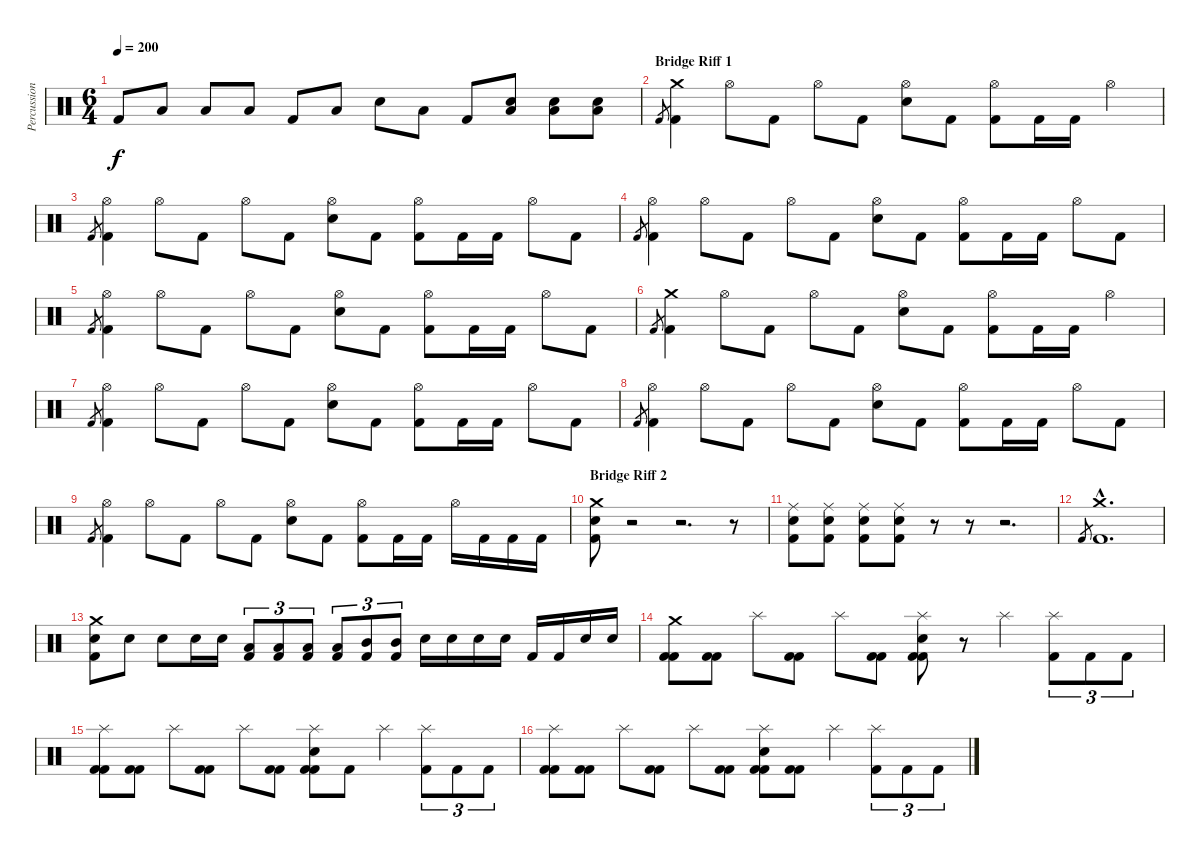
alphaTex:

\track ("Percussion" "Percussion") {instrument percussion}
\staff {score}
\articulation defaults
\ts (6 4)
\tempo 200
\clef neutral
\ks c "Kick (hit) 2".8{dy f} "Low Tom (hit)".8 "Low Floor Tom (hit)".8 "Low Floor Tom (hit)".8 "Kick (hit) 2".8 "Low Tom (hit)".8 "Electric Snare (hit)".8 "Low Floor Tom (hit)".8 "Kick (hit) 2".8
("Electric Snare (hit)" "Low Tom (hit)").8 ("Electric Snare (hit)" "Low Floor Tom (hit)").8 ("Electric Snare (hit)" "Low Floor Tom (hit)").8 |
\section ("" "Bridge Riff 1")
"Kick (hit) 2".8{gr} ("Crash medium (hit)" "Kick (hit) 2").4 "Hi-Hat (open)".8 "Kick (hit) 2".8 "Hi-Hat (open)".8 "Kick (hit) 2".8 ("Hi-Hat (open)" "Electric Snare (hit)").8 "Kick (hit) 2".8 ("Hi-Hat (open)" "Kick (hit) 2").8 "Kick (hit) 2".16 "Kick (hit) 2".16 "Hi-Hat (open)".4 |
"Kick (hit) 2".8{gr} ("Hi-Hat (open)" "Kick (hit) 2").4 "Hi-Hat (open)".8 "Kick (hit) 2".8 "Hi-Hat (open)".8 "Kick (hit) 2".8 ("Hi-Hat (open)" "Electric Snare (hit)").8 "Kick (hit) 2".8 ("Hi-Hat (open)" "Kick (hit) 2").8 "Kick (hit) 2".16 "Kick (hit) 2".16 "Hi-Hat (open)".8 "Kick (hit) 2".8 |
"Kick (hit) 2".8{gr} ("Hi-Hat (open)" "Kick (hit) 2").4 "Hi-Hat (open)".8 "Kick (hit) 2".8 "Hi-Hat (open)".8 "Kick (hit) 2".8 ("Hi-Hat (open)" "Electric Snare (hit)").8 "Kick (hit) 2".8 ("Hi-Hat (open)" "Kick (hit) 2").8 "Kick (hit) 2".16 "Kick (hit) 2".16 "Hi-Hat (open)".8 "Kick (hit) 2".8 |
"Kick (hit) 2".8{gr} ("Hi-Hat (open)" "Kick (hit) 2").4 "Hi-Hat (open)".8 "Kick (hit) 2".8 "Hi-Hat (open)".8 "Kick (hit) 2".8 ("Hi-Hat (open)" "Electric Snare (hit)").8 "Kick (hit) 2".8 ("Hi-Hat (open)" "Kick (hit) 2").8 "Kick (hit) 2".16 "Kick (hit) 2".16 "Hi-Hat (open)".8 "Kick (hit) 2".8 |
"Kick (hit) 2".8{gr} ("Crash medium (hit)" "Kick (hit) 2").4 "Hi-Hat (open)".8 "Kick (hit) 2".8 "Hi-Hat (open)".8 "Kick (hit) 2".8 ("Hi-Hat (open)" "Electric Snare (hit)").8 "Kick (hit) 2".8 ("Hi-Hat (open)" "Kick (hit) 2").8 "Kick (hit) 2".16 "Kick (hit) 2".16 "Hi-Hat (open)".4 |
"Kick (hit) 2".8{gr} ("Hi-Hat (open)" "Kick (hit) 2").4 "Hi-Hat (open)".8 "Kick (hit) 2".8 "Hi-Hat (open)".8 "Kick (hit) 2".8 ("Hi-Hat (open)" "Electric Snare (hit)").8 "Kick (hit) 2".8 ("Hi-Hat (open)" "Kick (hit) 2").8 "Kick (hit) 2".16 "Kick (hit) 2".16 "Hi-Hat (open)".8 "Kick (hit) 2".8 |
"Kick (hit) 2".8{gr} ("Hi-Hat (open)" "Kick (hit) 2").4 "Hi-Hat (open)".8 "Kick (hit) 2".8 "Hi-Hat (open)".8 "Kick (hit) 2".8 ("Hi-Hat (open)" "Electric Snare (hit)").8 "Kick (hit) 2".8 ("Hi-Hat (open)" "Kick (hit) 2").8 "Kick (hit) 2".16 "Kick (hit) 2".16 "Hi-Hat (open)".8 "Kick (hit) 2".8 |
"Kick (hit) 2".8{gr} ("Hi-Hat (open)" "Kick (hit) 2").4 "Hi-Hat (open)".8 "Kick (hit) 2".8 "Hi-Hat (open)".8 "Kick (hit) 2".8 ("Hi-Hat (open)" "Electric Snare (hit)").8 "Kick (hit) 2".8 ("Hi-Hat (open)" "Kick (hit) 2").8 "Kick (hit) 2".16 "Kick (hit) 2".16 "Hi-Hat (open)".16 "Kick (hit) 2".16 "Kick (hit) 2".16 "Kick (hit) 2".16 |
\section ("" "Bridge Riff 2")
("Crash medium (hit)" "Electric Snare (hit)" "Kick (hit) 2").8 r.2 r.2{d} r.8 |
("Ride (middle)" "Electric Snare (hit)" "Kick (hit) 2").8 ("Ride (middle)" "Electric Snare (hit)" "Kick (hit) 2").8 ("Ride (middle)" "Electric Snare (hit)" "Kick (hit) 2").8 ("Ride (middle)" "Electric Snare (hit)" "Kick (hit) 2").8 r.8 r.8 r.2{d} |
"Kick (hit) 2".8{gr} ("Crash medium (hit)"{hac} "Kick (hit) 2"{hac}).1{d} |
("Crash medium (hit)" "Electric Snare (hit)" "Kick (hit) 2").8 "Electric Snare (hit)".8 "Electric Snare (hit)".8 "Electric Snare (hit)".16 "Electric Snare (hit)".16 ("Low Floor Tom (hit)" "Kick (hit) 2").8{tu (3 2)} ("Low Floor Tom (hit)" "Kick (hit) 2").8{tu (3 2)} ("Low Tom (hit)" "Kick (hit) 2").8{tu (3 2)} ("Low Tom (hit)" "Kick (hit) 2").8{tu (3 2)} ("Mid Tom (hit)" "Kick (hit) 2").8{tu (3 2)} ("Mid Tom (hit)" "Kick (hit) 2").8{tu (3 2)} "Electric Snare (hit)".16 "Electric Snare (hit)".16 "Electric Snare (hit)".16 "Electric Snare (hit)".16 "Kick (hit) 2".16 "Kick (hit) 2".16 "Electric Snare (hit)".16 "Electric Snare (hit)".16 |
("Crash medium (hit)" "Kick (hit) 2" "Kick (hit) 2").8 ("Kick (hit) 2" "Kick (hit) 2").8 "Splash (hit)".8 ("Kick (hit) 2" "Kick (hit) 2").8 "Splash (hit)".8 ("Kick (hit) 2" "Kick (hit) 2").8 ("Splash (hit)" "Electric Snare (hit)" "Kick (hit) 2" "Kick (hit) 2").8 r.8 "Splash (hit)".4 ("Splash (hit)" "Kick (hit) 2").8{tu (3 2)} "Kick (hit) 2".8{tu (3 2)} "Kick (hit) 2".8{tu (3 2)} |
("Splash (hit)" "Kick (hit) 2" "Kick (hit) 2").8 ("Kick (hit) 2" "Kick (hit) 2").8 "Splash (hit)".8 ("Kick (hit) 2" "Kick (hit) 2").8 "Splash (hit)".8 ("Kick (hit) 2" "Kick (hit) 2").8 ("Splash (hit)" "Electric Snare (hit)" "Kick (hit) 2" "Kick (hit) 2").8 "Kick (hit) 2".8 "Splash (hit)".4 ("Splash (hit)" "Kick (hit) 2").8{tu (3 2)} "Kick (hit) 2".8{tu (3 2)} "Kick (hit) 2".8{tu (3 2)} |
("Splash (hit)" "Kick (hit) 2" "Kick (hit) 2").8 ("Kick (hit) 2" "Kick (hit) 2").8 "Splash (hit)".8 ("Kick (hit) 2" "Kick (hit) 2").8 "Splash (hit)".8 ("Kick (hit) 2" "Kick (hit) 2").8 ("Splash (hit)" "Electric Snare (hit)" "Kick (hit) 2" "Kick (hit) 2").8 ("Kick (hit) 2" "Kick (hit) 2").8 "Splash (hit)".4 ("Splash (hit)" "Kick (hit) 2").8{tu (3 2)} "Kick (hit) 2".8{tu (3 2)} "Kick (hit) 2".8{tu (3 2)}
